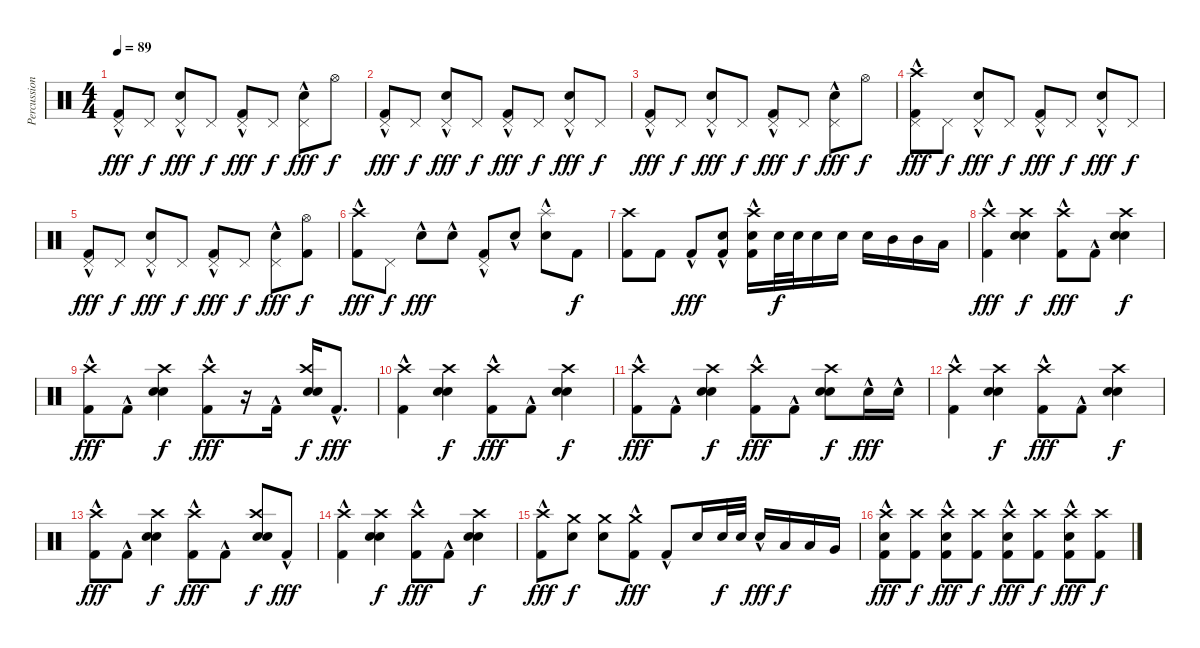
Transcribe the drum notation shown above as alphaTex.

\track ("Percussion" "Percussion") {instrument percussion}
\staff {score}
\articulation defaults
\ts (4 4)
\tempo 89
\clef neutral
\ks c
("Pedal Hi-Hat (hit)" "Kick (hit) 2"{hac}).8{dy fff} "Pedal Hi-Hat (hit)".8{dy f} ("Pedal Hi-Hat (hit)" "Electric Snare (hit)"{hac}).8{dy fff} "Pedal Hi-Hat (hit)".8{dy f} ("Pedal Hi-Hat (hit)" "Kick (hit) 2"{hac}).8{dy fff} "Pedal Hi-Hat (hit)".8{dy f} ("Pedal Hi-Hat (hit)" "Electric Snare (hit)"{hac}).8{dy fff} "Hi-Hat (open)".8{dy f} |
("Pedal Hi-Hat (hit)" "Kick (hit) 2"{hac}).8{dy fff} "Pedal Hi-Hat (hit)".8{dy f} ("Pedal Hi-Hat (hit)" "Electric Snare (hit)"{hac}).8{dy fff} "Pedal Hi-Hat (hit)".8{dy f} ("Pedal Hi-Hat (hit)" "Kick (hit) 2"{hac}).8{dy fff} "Pedal Hi-Hat (hit)".8{dy f} ("Pedal Hi-Hat (hit)" "Electric Snare (hit)"{hac}).8{dy fff} "Pedal Hi-Hat (hit)".8{dy f} |
("Pedal Hi-Hat (hit)" "Kick (hit) 2"{hac}).8{dy fff} "Pedal Hi-Hat (hit)".8{dy f} ("Pedal Hi-Hat (hit)" "Electric Snare (hit)"{hac}).8{dy fff} "Pedal Hi-Hat (hit)".8{dy f} ("Pedal Hi-Hat (hit)" "Kick (hit) 2"{hac}).8{dy fff} "Pedal Hi-Hat (hit)".8{dy f} ("Pedal Hi-Hat (hit)" "Electric Snare (hit)"{hac}).8{dy fff} "Hi-Hat (open)".8{dy f} |
("Crash high (hit)" "Pedal Hi-Hat (hit)" "Kick (hit) 2"{hac}).8{dy fff} "Pedal Hi-Hat (hit)".8{dy f} ("Pedal Hi-Hat (hit)" "Electric Snare (hit)"{hac}).8{dy fff} "Pedal Hi-Hat (hit)".8{dy f} ("Pedal Hi-Hat (hit)" "Kick (hit) 2"{hac}).8{dy fff} "Pedal Hi-Hat (hit)".8{dy f} ("Pedal Hi-Hat (hit)" "Electric Snare (hit)"{hac}).8{dy fff} "Pedal Hi-Hat (hit)".8{dy f} |
("Pedal Hi-Hat (hit)" "Kick (hit) 2"{hac}).8{dy fff} "Pedal Hi-Hat (hit)".8{dy f} ("Pedal Hi-Hat (hit)" "Electric Snare (hit)"{hac}).8{dy fff} "Pedal Hi-Hat (hit)".8{dy f} ("Pedal Hi-Hat (hit)" "Kick (hit) 2"{hac}).8{dy fff} "Pedal Hi-Hat (hit)".8{dy f} ("Pedal Hi-Hat (hit)" "Electric Snare (hit)"{hac}).8{dy fff} ("Hi-Hat (open)" "Kick (hit) 2").8{dy f} |
("Crash high (hit)"{hac} "Kick (hit) 2"{hac}).8{dy fff} "Pedal Hi-Hat (hit)".8{dy f} "Electric Snare (hit)"{hac}.8{dy fff} "Electric Snare (hit)"{hac}.8 ("Pedal Hi-Hat (hit)"{hac} "Kick (hit) 2").8 "Electric Snare (hit)"{hac}.8 ("Splash (hit)" "Electric Snare (hit)"{hac}).8 "Kick (hit) 2".8{dy f} |
("Crash high (hit)" "Kick (hit) 2").8 "Kick (hit) 2".8 "Kick (hit) 2"{hac}.8{dy fff} ("Electric Snare (hit)" "Kick (hit) 2"{hac}).8 ("Crash high (hit)" "Electric Snare (hit)" "Kick (hit) 2"{hac}).16 "Electric Snare (hit)".32{dy f} "Electric Snare (hit)".32 "Electric Snare (hit)".16 "Electric Snare (hit)".16 "Electric Snare (hit)".16 "Mid Tom (hit)".16 "Mid Tom (hit)".16 "Low Tom (hit)".16 |
("Crash high (hit)" "Kick (hit) 2"{hac}).4{dy fff} ("Crash high (hit)" "Snare (hit) 2" "Electric Snare (hit)").4{dy f} ("Crash high (hit)" "Kick (hit) 2"{hac}).8{dy fff} "Kick (hit) 2"{hac}.8 ("Crash high (hit)" "Snare (hit) 2" "Electric Snare (hit)").4{dy f} |
("Crash high (hit)" "Kick (hit) 2"{hac}).8{dy fff} "Kick (hit) 2"{hac}.8 ("Crash high (hit)" "Snare (hit) 2" "Electric Snare (hit)").4{dy f} ("Crash high (hit)" "Kick (hit) 2"{hac}).8{dy fff} r.16 "Kick (hit) 2"{hac}.16 ("Crash high (hit)" "Snare (hit) 2" "Electric Snare (hit)").16{dy f} "Kick (hit) 2"{hac}.8{d dy fff} |
("Crash high (hit)" "Kick (hit) 2"{hac}).4 ("Crash high (hit)" "Snare (hit) 2" "Electric Snare (hit)").4{dy f} ("Crash high (hit)" "Kick (hit) 2"{hac}).8{dy fff} "Kick (hit) 2"{hac}.8 ("Crash high (hit)" "Snare (hit) 2" "Electric Snare (hit)").4{dy f} |
("Crash high (hit)" "Kick (hit) 2"{hac}).8{dy fff} "Kick (hit) 2"{hac}.8 ("Crash high (hit)" "Snare (hit) 2" "Electric Snare (hit)").4{dy f} ("Crash high (hit)" "Kick (hit) 2"{hac}).8{dy fff} "Kick (hit) 2"{hac}.8 ("Crash high (hit)" "Snare (hit) 2" "Electric Snare (hit)").8{dy f} "Electric Snare (hit)"{hac}.16{dy fff} "Electric Snare (hit)"{hac}.16 |
("Crash high (hit)" "Kick (hit) 2"{hac}).4 ("Crash high (hit)" "Snare (hit) 2" "Electric Snare (hit)").4{dy f} ("Crash high (hit)" "Kick (hit) 2"{hac}).8{dy fff} "Kick (hit) 2"{hac}.8 ("Crash high (hit)" "Snare (hit) 2" "Electric Snare (hit)").4{dy f} |
("Crash high (hit)" "Kick (hit) 2"{hac}).8{dy fff} "Kick (hit) 2"{hac}.8 ("Crash high (hit)" "Snare (hit) 2" "Electric Snare (hit)").4{dy f} ("Crash high (hit)" "Kick (hit) 2"{hac}).8{dy fff} "Kick (hit) 2"{hac}.8 ("Crash high (hit)" "Snare (hit) 2" "Electric Snare (hit)").8{dy f} "Kick (hit) 2"{hac}.8{dy fff} |
("Crash high (hit)" "Kick (hit) 2"{hac}).4 ("Crash high (hit)" "Snare (hit) 2" "Electric Snare (hit)").4{dy f} ("Crash high (hit)" "Kick (hit) 2"{hac}).8{dy fff} "Kick (hit) 2"{hac}.8 ("Crash high (hit)" "Snare (hit) 2" "Electric Snare (hit)").4{dy f} |
("Crash high (hit)" "Kick (hit) 2"{hac}).8{dy fff} ("Crash medium (hit)" "Electric Snare (hit)").8{dy f} ("Crash medium (hit)" "Electric Snare (hit)").8 ("Crash medium (hit)" "Kick (hit) 2"{hac}).8{dy fff} "Kick (hit) 2"{hac}.8 "Electric Snare (hit)".16 "Electric Snare (hit)".32{dy f} "Electric Snare (hit)".32 "Electric Snare (hit)"{hac}.16{dy fff} "Low Tom (hit)".16{dy f} "Low Tom (hit)".16 "Very Low Tom (hit)".16 |
("Crash high (hit)" "Electric Snare (hit)" "Kick (hit) 2"{hac}).8{dy fff} ("Crash high (hit)" "Kick (hit) 2").8{dy f} ("Crash high (hit)" "Electric Snare (hit)" "Kick (hit) 2"{hac}).8{dy fff} ("Crash high (hit)" "Kick (hit) 2").8{dy f} ("Crash high (hit)" "Electric Snare (hit)" "Kick (hit) 2"{hac}).8{dy fff} ("Crash high (hit)" "Kick (hit) 2").8{dy f} ("Crash high (hit)" "Electric Snare (hit)" "Kick (hit) 2"{hac}).8{dy fff} ("Crash high (hit)" "Kick (hit) 2").8{dy f}
